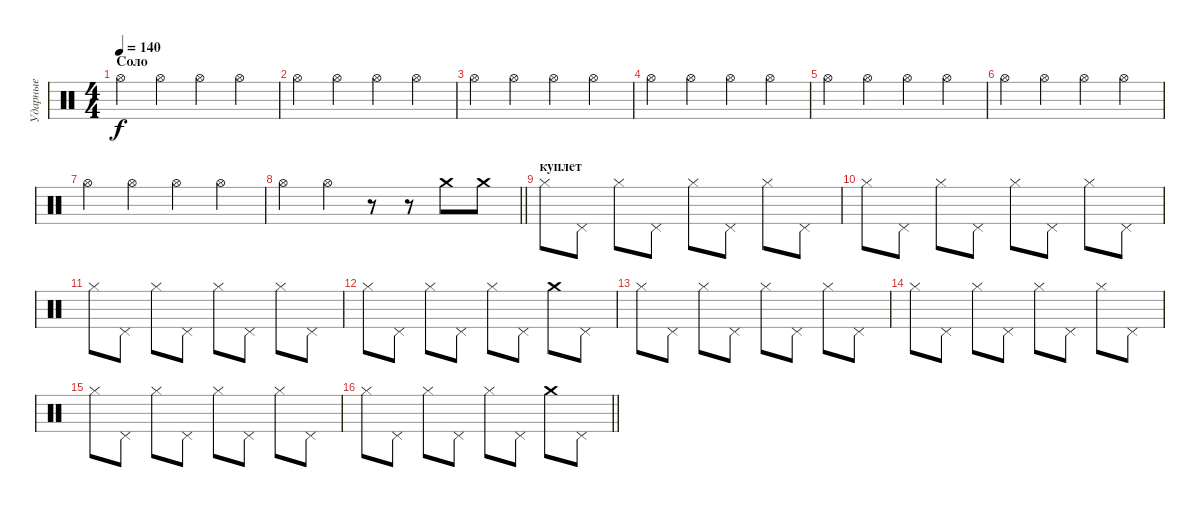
\track ("Ударные" "Ударные") {instrument percussion}
\staff {score}
\articulation defaults
\ts (4 4)
\section ("" "Соло")
\tempo 140
\clef neutral
\ks c "Hi-Hat (open)".4{dy f} "Hi-Hat (open)".4 "Hi-Hat (open)".4 "Hi-Hat (open)".4
|
"Hi-Hat (open)".4 "Hi-Hat (open)".4 "Hi-Hat (open)".4 "Hi-Hat (open)".4 |
"Hi-Hat (open)".4 "Hi-Hat (open)".4 "Hi-Hat (open)".4 "Hi-Hat (open)".4 |
"Hi-Hat (open)".4 "Hi-Hat (open)".4 "Hi-Hat (open)".4 "Hi-Hat (open)".4 |
"Hi-Hat (open)".4 "Hi-Hat (open)".4 "Hi-Hat (open)".4 "Hi-Hat (open)".4 |
"Hi-Hat (open)".4 "Hi-Hat (open)".4 "Hi-Hat (open)".4 "Hi-Hat (open)".4 |
"Hi-Hat (open)".4 "Hi-Hat (open)".4 "Hi-Hat (open)".4 "Hi-Hat (open)".4 |
\barLineRight lightlight "Hi-Hat (open)".4 "Hi-Hat (open)".4
r.8 r.8 "Crash medium (hit)".8 "Crash medium (hit)".8 |
\section ("" "куплет")
"Hi-Hat (closed)".8 "Pedal Hi-Hat (hit)".8 "Hi-Hat (closed)".8 "Pedal Hi-Hat (hit)".8 "Hi-Hat (closed)".8 "Pedal Hi-Hat (hit)".8 "Hi-Hat (closed)".8 "Pedal Hi-Hat (hit)".8 |
"Hi-Hat (closed)".8 "Pedal Hi-Hat (hit)".8 "Hi-Hat (closed)".8 "Pedal Hi-Hat (hit)".8 "Hi-Hat (closed)".8 "Pedal Hi-Hat (hit)".8 "Hi-Hat (closed)".8 "Pedal Hi-Hat (hit)".8 |
"Hi-Hat (closed)".8 "Pedal Hi-Hat (hit)".8 "Hi-Hat (closed)".8 "Pedal Hi-Hat (hit)".8 "Hi-Hat (closed)".8 "Pedal Hi-Hat (hit)".8 "Hi-Hat (closed)".8 "Pedal Hi-Hat (hit)".8 |
"Hi-Hat (closed)".8 "Pedal Hi-Hat (hit)".8 "Hi-Hat (closed)".8 "Pedal Hi-Hat (hit)".8 "Hi-Hat (closed)".8 "Pedal Hi-Hat (hit)".8 "Crash medium (hit)".8 "Pedal Hi-Hat (hit)".8 |
"Hi-Hat (closed)".8 "Pedal Hi-Hat (hit)".8 "Hi-Hat (closed)".8 "Pedal Hi-Hat (hit)".8 "Hi-Hat (closed)".8 "Pedal Hi-Hat (hit)".8 "Hi-Hat (closed)".8 "Pedal Hi-Hat (hit)".8 |
"Hi-Hat (closed)".8 "Pedal Hi-Hat (hit)".8 "Hi-Hat (closed)".8 "Pedal Hi-Hat (hit)".8 "Hi-Hat (closed)".8 "Pedal Hi-Hat (hit)".8 "Hi-Hat (closed)".8 "Pedal Hi-Hat (hit)".8 |
"Hi-Hat (closed)".8 "Pedal Hi-Hat (hit)".8 "Hi-Hat (closed)".8 "Pedal Hi-Hat (hit)".8 "Hi-Hat (closed)".8 "Pedal Hi-Hat (hit)".8 "Hi-Hat (closed)".8 "Pedal Hi-Hat (hit)".8 |
\barLineRight lightlight "Hi-Hat (closed)".8 "Pedal Hi-Hat (hit)".8 "Hi-Hat (closed)".8 "Pedal Hi-Hat (hit)".8 "Hi-Hat (closed)".8 "Pedal Hi-Hat (hit)".8 "Crash medium (hit)".8 "Pedal Hi-Hat (hit)".8
